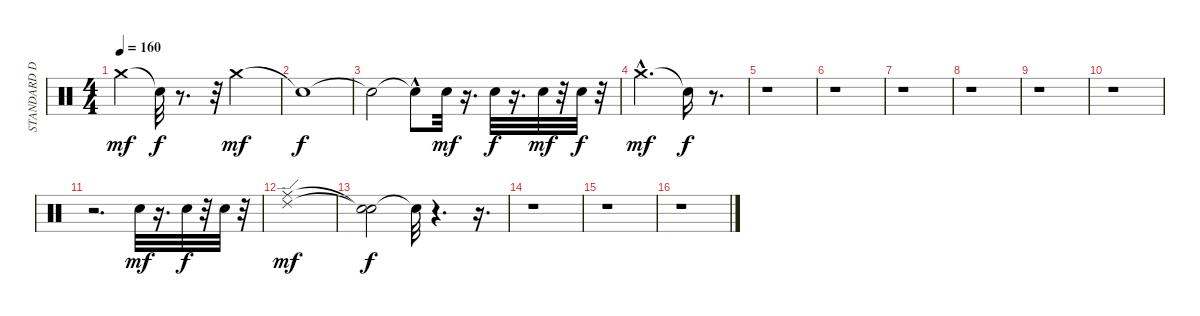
\track ("STANDARD DRUMS" "STANDARD D") {instrument percussion}
\staff {score}
\articulation defaults
\ts (4 4)
\tempo 160
\clef neutral
\ks c "Crash medium (hit)".4{dy mf} "Snare (hit)"{t}.32{dy f}
r.8{d} r.32 "Crash medium (hit)".2{dy mf} |
"Snare (hit)"{t}.1{dy f} |
"Snare (hit)"{t}.2 "Snare (hit)"{hac t}.8 "Electric Snare (hit)".32{dy mf} r.16{d} "Electric Snare (hit)".32{dy f} r.16{d} "Electric Snare (hit)".32{dy mf} r.32 "Electric Snare (hit)".32{dy f} r.32 |
"Crash medium (hit)"{hac}.2{d dy mf} "Snare (hit)"{t}.16{dy f} r.8{d} |
r.1 |
r.1 |
r.1 |
r.1 |
r.1 |
r.1 |
r.2{d} "Electric Snare (hit)".32{dy mf} r.16{d} "Electric Snare (hit)".32{dy f} r.32 "Electric Snare (hit)".32 r.32 |
("Ride (edge) 2" "Ride (middle)").1{dy mf} |
("Snare (hit)"{t} "Snare (hit)"{t}).2{dy f} "Snare (hit)"{t}.32 r.4{d} r.16{d} |
r.1 |
r.1 |
r.1
